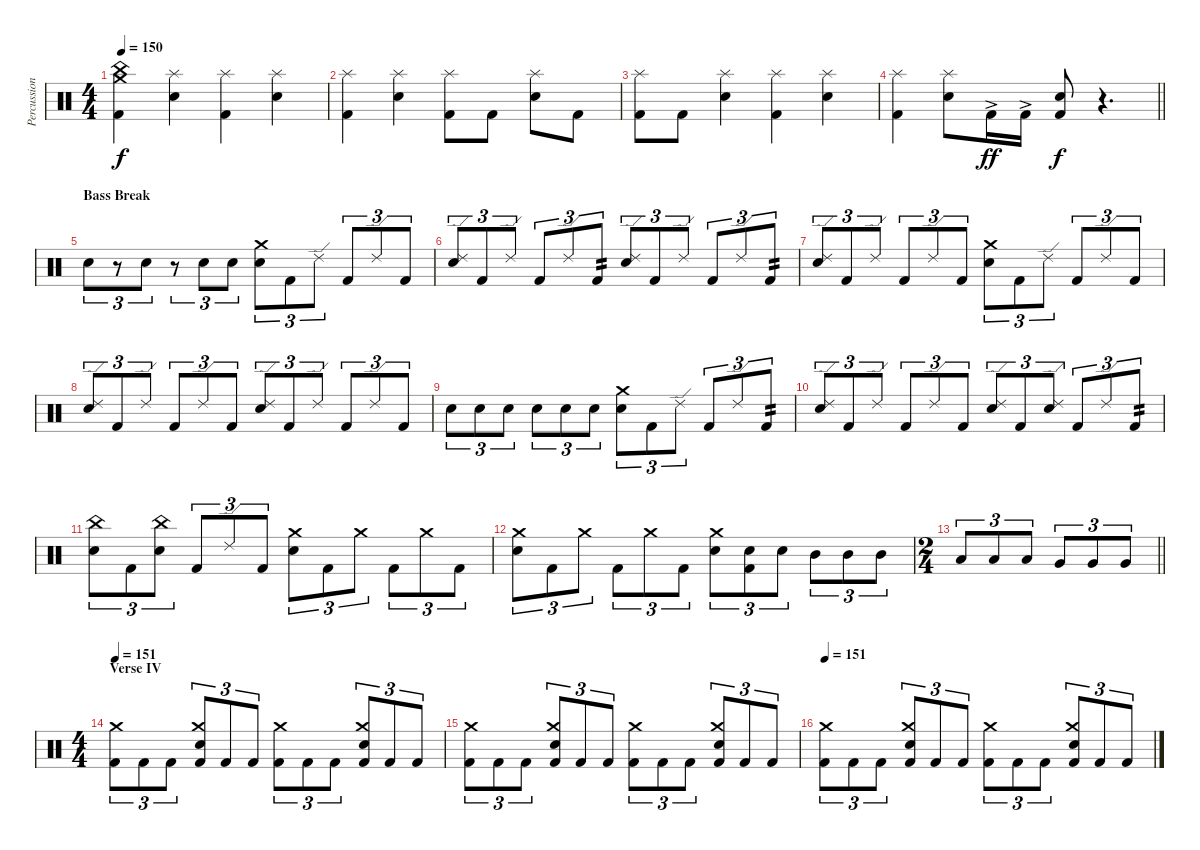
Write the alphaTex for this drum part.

\track ("Percussion" "Percussion") {instrument percussion}
\staff {score}
\articulation defaults
\ts (4 4)
\section ("" "")
\tempo 150
\clef neutral
\ks c
("Kick (hit) 2" "China (hit)" "Crash medium (hit)").4{dy f} ("Snare (hit) 2" "Splash (hit)").4 ("Kick (hit) 2" "Splash (hit)").4 ("Snare (hit) 2" "Splash (hit)").4 |
("Kick (hit) 2" "Splash (hit)").4 ("Snare (hit) 2" "Splash (hit)").4 ("Kick (hit) 2" "Splash (hit)").8 "Kick (hit) 2".8 ("Snare (hit) 2" "Splash (hit)").8 "Kick (hit) 2".8 |
("Kick (hit) 2" "Splash (hit)").8 "Kick (hit) 2".8 ("Snare (hit) 2" "Splash (hit)").4 ("Kick (hit) 2" "Splash (hit)").4 ("Snare (hit) 2" "Splash (hit)").4 |
\barLineRight lightlight
("Kick (hit) 2" "Splash (hit)").4 ("Snare (hit) 2" "Splash (hit)").8 "Kick (hit) 2"{ac}.16{dy ff} "Kick (hit) 2"{ac}.16 ("Kick (hit) 2" "Snare (hit) 2").8{dy f} r.4{d} |
\section ("" "Bass Break")
"Snare (hit) 2".8{tu (3 2)} r.8{tu (3 2)} "Snare (hit) 2".8{tu (3 2)} r.8{tu (3 2)} "Snare (hit) 2".8{tu (3 2)} "Snare (hit) 2".8{tu (3 2)} ("Snare (hit) 2" "Crash medium (hit)").8{tu (3 2)} "Kick (hit) 2".8{tu (3 2)} "Ride (edge) 2".8{tu (3 2)} "Kick (hit) 2".8{tu (3 2)} "Ride (edge) 2".8{tu (3 2)} "Kick (hit) 2".8{tu (3 2)} |
("Snare (hit) 2" "Ride (edge) 2").8{tu (3 2)} "Kick (hit) 2".8{tu (3 2)} "Ride (edge) 2".8{tu (3 2)} "Kick (hit) 2".8{tu (3 2)} "Ride (edge) 2".8{tu (3 2)} "Kick (hit) 2".8{tu (3 2) tp 2} ("Snare (hit) 2" "Ride (edge) 2").8{tu (3 2)} "Kick (hit) 2".8{tu (3 2)} "Ride (edge) 2".8{tu (3 2)} "Kick (hit) 2".8{tu (3 2)} "Ride (edge) 2".8{tu (3 2)} "Kick (hit) 2".8{tu (3 2) tp 2} |
("Snare (hit) 2" "Ride (edge) 2").8{tu (3 2)} "Kick (hit) 2".8{tu (3 2)} "Ride (edge) 2".8{tu (3 2)} "Kick (hit) 2".8{tu (3 2)} "Ride (edge) 2".8{tu (3 2)} "Kick (hit) 2".8{tu (3 2)} ("Snare (hit) 2" "Crash medium (hit)").8{tu (3 2)} "Kick (hit) 2".8{tu (3 2)} "Ride (edge) 2".8{tu (3 2)} "Kick (hit) 2".8{tu (3 2)} "Ride (edge) 2".8{tu (3 2)} "Kick (hit) 2".8{tu (3 2)} |
("Snare (hit) 2" "Ride (edge) 2").8{tu (3 2)} "Kick (hit) 2".8{tu (3 2)} "Ride (edge) 2".8{tu (3 2)} "Kick (hit) 2".8{tu (3 2)} "Ride (edge) 2".8{tu (3 2)} "Kick (hit) 2".8{tu (3 2)} ("Snare (hit) 2" "Ride (edge) 2").8{tu (3 2)} "Kick (hit) 2".8{tu (3 2)} "Ride (edge) 2".8{tu (3 2)} "Kick (hit) 2".8{tu (3 2)} "Ride (edge) 2".8{tu (3 2)} "Kick (hit) 2".8{tu (3 2)} |
"Snare (hit) 2".8{tu (3 2)} "Snare (hit) 2".8{tu (3 2)} "Snare (hit) 2".8{tu (3 2)} "Snare (hit) 2".8{tu (3 2)} "Snare (hit) 2".8{tu (3 2)} "Snare (hit) 2".8{tu (3 2)} ("Snare (hit) 2" "Crash medium (hit)").8{tu (3 2)} "Kick (hit) 2".8{tu (3 2)} "Ride (edge) 2".8{tu (3 2)} "Kick (hit) 2".8{tu (3 2)} "Ride (edge) 2".8{tu (3 2)} "Kick (hit) 2".8{tu (3 2) tp 2} |
("Snare (hit) 2" "Ride (edge) 2").8{tu (3 2)} "Kick (hit) 2".8{tu (3 2)} "Ride (edge) 2".8{tu (3 2)} "Kick (hit) 2".8{tu (3 2)} "Ride (edge) 2".8{tu (3 2)} "Kick (hit) 2".8{tu (3 2)} ("Snare (hit) 2" "Ride (edge) 2").8{tu (3 2)} "Kick (hit) 2".8{tu (3 2)} ("Snare (hit) 2" "Ride (edge) 2").8{tu (3 2)} "Kick (hit) 2".8{tu (3 2)} "Ride (edge) 2".8{tu (3 2)} "Kick (hit) 2".8{tu (3 2) tp 2} |
("Snare (hit) 2" "China (hit)").8{tu (3 2)} "Kick (hit) 2".8{tu (3 2)} ("Snare (hit) 2" "China (hit)").8{tu (3 2)} "Kick (hit) 2".8{tu (3 2)} "Ride (edge) 2".8{tu (3 2)} "Kick (hit) 2".8{tu (3 2)} ("Snare (hit) 2" "Crash medium (hit)").8{tu (3 2)} "Kick (hit) 2".8{tu (3 2)} "Crash medium (hit)".8{tu (3 2)} "Kick (hit) 2".8{tu (3 2)} "Crash medium (hit)".8{tu (3 2)} "Kick (hit) 2".8{tu (3 2)} |
("Snare (hit) 2" "Crash medium (hit)").8{tu (3 2)} "Kick (hit) 2".8{tu (3 2)} "Crash medium (hit)".8{tu (3 2)} "Kick (hit) 2".8{tu (3 2)} "Crash medium (hit)".8{tu (3 2)} "Kick (hit) 2".8{tu (3 2)} ("Snare (hit) 2" "Crash medium (hit)").8{tu (3 2)} ("Kick (hit) 2" "Snare (hit) 2").8{tu (3 2)} "Snare (hit) 2".8{tu (3 2)} "Mid Tom (hit)".8{tu (3 2)} "Mid Tom (hit)".8{tu (3 2)} "Mid Tom (hit)".8{tu (3 2)} |
\ts (2 4)
\barLineRight lightlight "Low Tom (hit)".8{tu (3 2)} "Low Tom (hit)".8{tu (3 2)} "Low Tom (hit)".8{tu (3 2)} "Very Low Tom (hit)".8{tu (3 2)} "Very Low Tom (hit)".8{tu (3 2)} "Very Low Tom (hit)".8{tu (3 2)}
|
\ts (4 4)
\section ("" "Verse IV")
\tempo 151
("Kick (hit) 2" "Crash medium (hit)").8{tu (3 2)} "Kick (hit) 2".8{tu (3 2)} "Kick (hit) 2".8{tu (3 2)} ("Kick (hit) 2" "Snare (hit) 2" "Crash medium (hit)").8{tu (3 2)} "Kick (hit) 2".8{tu (3 2)} "Kick (hit) 2".8{tu (3 2)} ("Kick (hit) 2" "Crash medium (hit)").8{tu (3 2)} "Kick (hit) 2".8{tu (3 2)} "Kick (hit) 2".8{tu (3 2)} ("Kick (hit) 2" "Snare (hit) 2" "Crash medium (hit)").8{tu (3 2)} "Kick (hit) 2".8{tu (3 2)} "Kick (hit) 2".8{tu (3 2)} |
("Kick (hit) 2" "Crash medium (hit)").8{tu (3 2)} "Kick (hit) 2".8{tu (3 2)} "Kick (hit) 2".8{tu (3 2)} ("Kick (hit) 2" "Snare (hit) 2" "Crash medium (hit)").8{tu (3 2)} "Kick (hit) 2".8{tu (3 2)} "Kick (hit) 2".8{tu (3 2)} ("Kick (hit) 2" "Crash medium (hit)").8{tu (3 2)} "Kick (hit) 2".8{tu (3 2)} "Kick (hit) 2".8{tu (3 2)} ("Kick (hit) 2" "Snare (hit) 2" "Crash medium (hit)").8{tu (3 2)} "Kick (hit) 2".8{tu (3 2)} "Kick (hit) 2".8{tu (3 2)} |
\tempo 151
("Kick (hit) 2" "Crash medium (hit)").8{tu (3 2)} "Kick (hit) 2".8{tu (3 2)} "Kick (hit) 2".8{tu (3 2)} ("Kick (hit) 2" "Snare (hit) 2" "Crash medium (hit)").8{tu (3 2)} "Kick (hit) 2".8{tu (3 2)} "Kick (hit) 2".8{tu (3 2)} ("Kick (hit) 2" "Crash medium (hit)").8{tu (3 2)} "Kick (hit) 2".8{tu (3 2)} "Kick (hit) 2".8{tu (3 2)} ("Kick (hit) 2" "Snare (hit) 2" "Crash medium (hit)").8{tu (3 2)} "Kick (hit) 2".8{tu (3 2)} "Kick (hit) 2".8{tu (3 2)}
